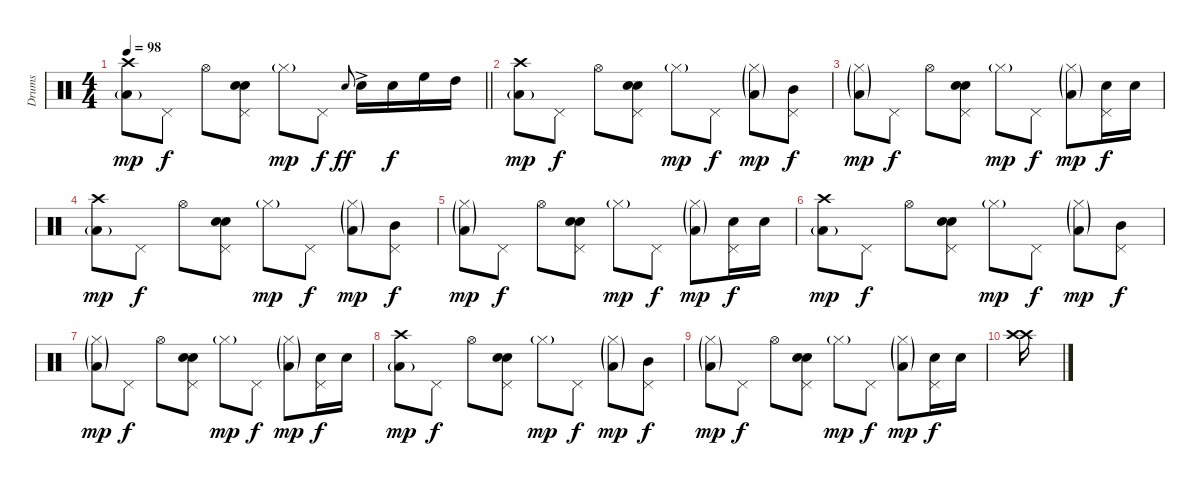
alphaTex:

\track ("Drums" "Drums") {instrument percussion}
\staff {score}
\articulation defaults
\ts (4 4)
\tempo 98
\clef neutral
\barLineRight lightlight
\ks c
("Crash high (hit)" "Low Tom (hit)"{g}).8{dy mp} "Pedal Hi-Hat (hit)".8{dy f} "Hi-Hat (open)".8 ("Pedal Hi-Hat (hit)" "Snare (hit) 2" "Snare (hit) 2").8 "Hi-Hat (closed)"{g}.8{dy mp} "Pedal Hi-Hat (hit)".8{dy f} "Snare (hit) 2".8{gr onbeat dy ff} "Snare (hit) 2"{ac}.16 "Snare (hit) 2".16{dy f} "High Floor Tom (hit)".16 "High Tom (hit)".16 |
("Crash high (hit)" "Low Tom (hit)"{g}).8{dy mp} "Pedal Hi-Hat (hit)".8{dy f} "Hi-Hat (open)".8 ("Pedal Hi-Hat (hit)" "Snare (hit) 2" "Snare (hit) 2").8 "Hi-Hat (closed)"{g}.8{dy mp} "Pedal Hi-Hat (hit)".8{dy f} ("Hi-Hat (closed)"{g} "Low Tom (hit)"{g}).8{dy mp} ("Pedal Hi-Hat (hit)" "Mid Tom (hit)").8{dy f} |
("Hi-Hat (closed)"{g} "Low Tom (hit)"{g}).8{dy mp} "Pedal Hi-Hat (hit)".8{dy f} "Hi-Hat (open)".8 ("Pedal Hi-Hat (hit)" "Snare (hit) 2" "Snare (hit) 2").8 "Hi-Hat (closed)"{g}.8{dy mp} "Pedal Hi-Hat (hit)".8{dy f} ("Hi-Hat (closed)"{g} "Low Tom (hit)"{g}).8{dy mp} ("Pedal Hi-Hat (hit)" "Snare (hit) 2").16{dy f} "Snare (hit) 2".16 |
("Crash high (hit)" "Low Tom (hit)"{g}).8{dy mp} "Pedal Hi-Hat (hit)".8{dy f} "Hi-Hat (open)".8 ("Pedal Hi-Hat (hit)" "Snare (hit) 2" "Snare (hit) 2").8 "Hi-Hat (closed)"{g}.8{dy mp} "Pedal Hi-Hat (hit)".8{dy f} ("Hi-Hat (closed)"{g} "Low Tom (hit)"{g}).8{dy mp} ("Pedal Hi-Hat (hit)" "Mid Tom (hit)").8{dy f} |
("Hi-Hat (closed)"{g} "Low Tom (hit)"{g}).8{dy mp} "Pedal Hi-Hat (hit)".8{dy f} "Hi-Hat (open)".8 ("Pedal Hi-Hat (hit)" "Snare (hit) 2" "Snare (hit) 2").8 "Hi-Hat (closed)"{g}.8{dy mp} "Pedal Hi-Hat (hit)".8{dy f} ("Hi-Hat (closed)"{g} "Low Tom (hit)"{g}).8{dy mp} ("Pedal Hi-Hat (hit)" "Snare (hit) 2").16{dy f} "Snare (hit) 2".16 |
("Crash high (hit)" "Low Tom (hit)"{g}).8{dy mp} "Pedal Hi-Hat (hit)".8{dy f} "Hi-Hat (open)".8 ("Pedal Hi-Hat (hit)" "Snare (hit) 2" "Snare (hit) 2").8 "Hi-Hat (closed)"{g}.8{dy mp} "Pedal Hi-Hat (hit)".8{dy f} ("Hi-Hat (closed)"{g} "Low Tom (hit)"{g}).8{dy mp} ("Pedal Hi-Hat (hit)" "Mid Tom (hit)").8{dy f} |
("Hi-Hat (closed)"{g} "Low Tom (hit)"{g}).8{dy mp} "Pedal Hi-Hat (hit)".8{dy f} "Hi-Hat (open)".8 ("Pedal Hi-Hat (hit)" "Snare (hit) 2" "Snare (hit) 2").8 "Hi-Hat (closed)"{g}.8{dy mp} "Pedal Hi-Hat (hit)".8{dy f} ("Hi-Hat (closed)"{g} "Low Tom (hit)"{g}).8{dy mp} ("Pedal Hi-Hat (hit)" "Snare (hit) 2").16{dy f} "Snare (hit) 2".16 |
("Crash high (hit)" "Low Tom (hit)"{g}).8{dy mp} "Pedal Hi-Hat (hit)".8{dy f} "Hi-Hat (open)".8 ("Pedal Hi-Hat (hit)" "Snare (hit) 2" "Snare (hit) 2").8 "Hi-Hat (closed)"{g}.8{dy mp} "Pedal Hi-Hat (hit)".8{dy f} ("Hi-Hat (closed)"{g} "Low Tom (hit)"{g}).8{dy mp} ("Pedal Hi-Hat (hit)" "Mid Tom (hit)").8{dy f} |
("Hi-Hat (closed)"{g} "Low Tom (hit)"{g}).8{dy mp} "Pedal Hi-Hat (hit)".8{dy f} "Hi-Hat (open)".8 ("Pedal Hi-Hat (hit)" "Snare (hit) 2" "Snare (hit) 2").8 "Hi-Hat (closed)"{g}.8{dy mp} "Pedal Hi-Hat (hit)".8{dy f} ("Hi-Hat (closed)"{g} "Low Tom (hit)"{g}).8{dy mp} ("Pedal Hi-Hat (hit)" "Snare (hit) 2").16{dy f} "Snare (hit) 2".16 |
("Crash high (hit)" "Crash high (hit)").16
